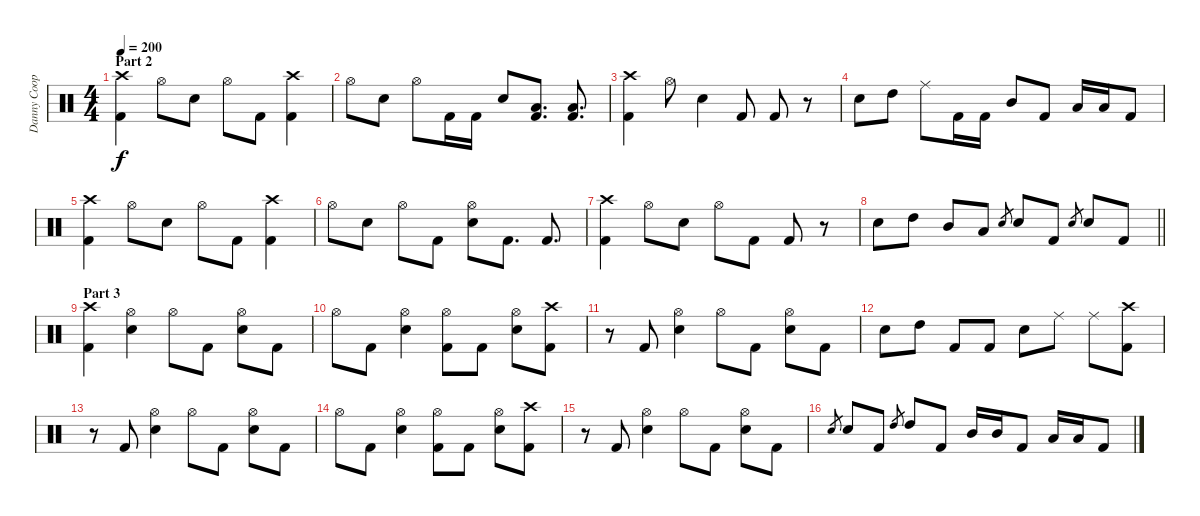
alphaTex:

\track ("Danny Cooper" "Danny Coop") {instrument percussion}
\staff {score}
\articulation defaults
\ts (4 4)
\section ("" "Part 2")
\tempo 200
\clef neutral
\ks c
("Crash high (hit)" "Kick (hit) 2").4{dy f} "Hi-Hat (open)".8 "Snare (hit) 2".8 "Hi-Hat (open)".8 "Kick (hit) 2".8 ("Crash high (hit)" "Kick (hit) 2").4 |
"Hi-Hat (open)".8 "Snare (hit) 2".8 "Hi-Hat (open)".8 "Kick (hit) 2".16 "Kick (hit) 2".16 "Snare (hit) 2".8 ("Low Tom (hit)" "Kick (hit) 2").8{d} ("Low Tom (hit)" "Kick (hit) 2").8{d} |
("Crash high (hit)" "Kick (hit) 2").4 "Hi-Hat (open)".8 "Snare (hit) 2".4 "Kick (hit) 2".8 "Kick (hit) 2".8 r.8 |
"Snare (hit) 2".8 "High Tom (hit)".8 "Ride (middle)".8 "Kick (hit) 2".16 "Kick (hit) 2".16 "Mid Tom (hit)".8 "Kick (hit) 2".8 "Low Tom (hit)".16 "Low Tom (hit)".16 "Kick (hit) 2".8 |
("Crash high (hit)" "Kick (hit) 2").4 "Hi-Hat (open)".8 "Snare (hit) 2".8 "Hi-Hat (open)".8 "Kick (hit) 2".8 ("Crash high (hit)" "Kick (hit) 2").4 |
"Hi-Hat (open)".8 "Snare (hit) 2".8 "Hi-Hat (open)".8 "Kick (hit) 2".8 ("Hi-Hat (open)" "Snare (hit) 2").8 "Kick (hit) 2".8{d} "Kick (hit) 2".8{d} |
("Crash high (hit)" "Kick (hit) 2").4 "Hi-Hat (open)".8 "Snare (hit) 2".8 "Hi-Hat (open)".8 "Kick (hit) 2".8 "Kick (hit) 2".8 r.8 |
\barLineRight lightlight "Snare (hit) 2".8 "High Tom (hit)".8 "Mid Tom (hit)".8 "Low Tom (hit)".8 "Snare (hit) 2".8{gr} "Snare (hit) 2".8 "Kick (hit) 2".8 "Snare (hit) 2".8{gr} "Snare (hit) 2".8 "Kick (hit) 2".8
|
\section ("" "Part 3")
("Crash high (hit)" "Kick (hit) 2").4 ("Hi-Hat (open)" "Snare (hit) 2").4 "Hi-Hat (open)".8 "Kick (hit) 2".8 ("Hi-Hat (open)" "Snare (hit) 2").8 "Kick (hit) 2".8 |
"Hi-Hat (open)".8 "Kick (hit) 2".8 ("Hi-Hat (open)" "Snare (hit) 2").4 ("Hi-Hat (open)" "Kick (hit) 2").8 "Kick (hit) 2".8 ("Hi-Hat (open)" "Snare (hit) 2").8 ("Crash high (hit)" "Kick (hit) 2").8 |
r.8 "Kick (hit) 2".8 ("Hi-Hat (open)" "Snare (hit) 2").4 "Hi-Hat (open)".8 "Kick (hit) 2".8 ("Hi-Hat (open)" "Snare (hit) 2").8 "Kick (hit) 2".8 |
"Snare (hit) 2".8 "High Tom (hit)".8 "Kick (hit) 2".8 "Kick (hit) 2".8 "Snare (hit) 2".8 "Ride (middle)".8 "Ride (middle)".8 ("Crash high (hit)" "Kick (hit) 2").8 |
r.8 "Kick (hit) 2".8 ("Hi-Hat (open)" "Snare (hit) 2").4 "Hi-Hat (open)".8 "Kick (hit) 2".8 ("Hi-Hat (open)" "Snare (hit) 2").8 "Kick (hit) 2".8 |
"Hi-Hat (open)".8 "Kick (hit) 2".8 ("Hi-Hat (open)" "Snare (hit) 2").4 ("Hi-Hat (open)" "Kick (hit) 2").8 "Kick (hit) 2".8 ("Hi-Hat (open)" "Snare (hit) 2").8 ("Crash high (hit)" "Kick (hit) 2").8 |
r.8 "Kick (hit) 2".8 ("Hi-Hat (open)" "Snare (hit) 2").4 "Hi-Hat (open)".8 "Kick (hit) 2".8 ("Hi-Hat (open)" "Snare (hit) 2").8 "Kick (hit) 2".8 |
"Snare (hit) 2".8{gr} "Snare (hit) 2".8 "Kick (hit) 2".8 "High Tom (hit)".8{gr} "High Tom (hit)".8 "Kick (hit) 2".8 "Mid Tom (hit)".16 "Mid Tom (hit)".16 "Kick (hit) 2".8 "Low Tom (hit)".16 "Low Tom (hit)".16 "Kick (hit) 2".8
